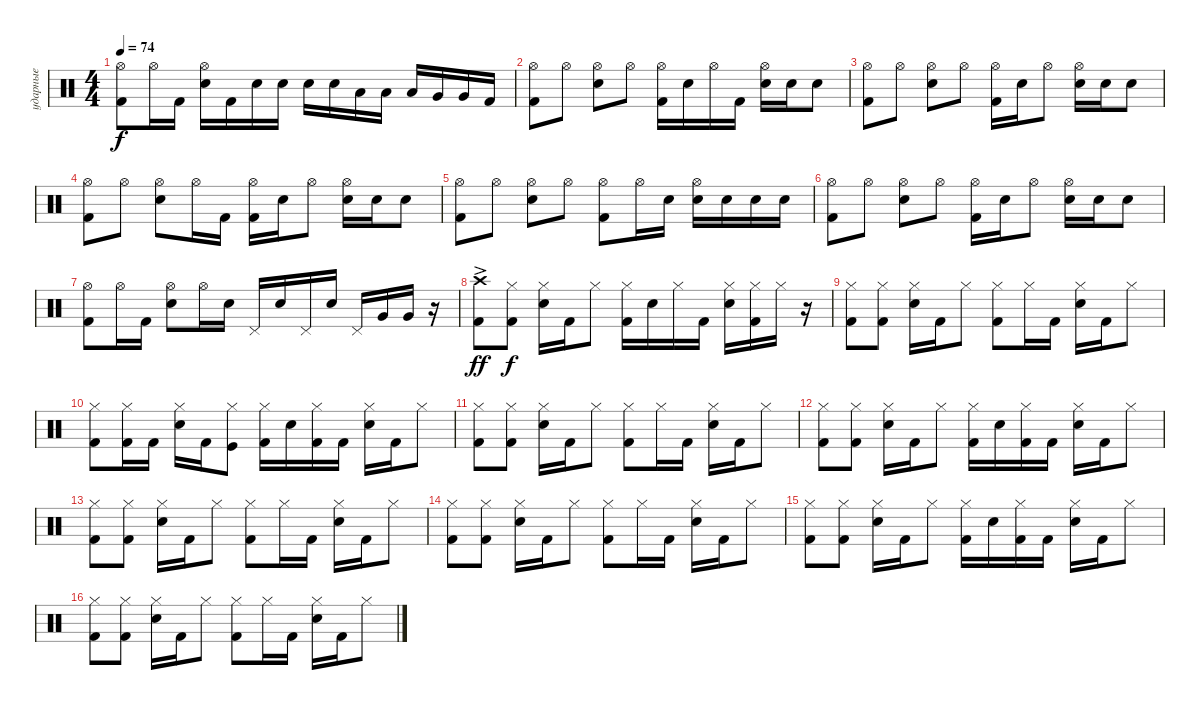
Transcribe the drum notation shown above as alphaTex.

\track ("ударные" "ударные") {instrument percussion}
\staff {score}
\articulation defaults
\ts (4 4)
\tempo 74
\clef neutral
\ks aminor
("Kick (hit) 2" "Hi-Hat (open)").8{dy f} "Hi-Hat (open)".16 "Kick (hit) 2".16 ("Snare (hit) 2" "Hi-Hat (open)").16 "Kick (hit) 2".16 "Snare (hit) 2".16 "Snare (hit) 2".16 "Snare (hit) 2".16 "Snare (hit) 2".16 "Low Tom (hit)".16 "Low Tom (hit)".16 "Low Tom (hit)".16 "Very Low Tom (hit)".16 "Very Low Tom (hit)".16 "Kick (hit) 2".16 |
("Kick (hit) 2" "Hi-Hat (open)").8 "Hi-Hat (open)".8 ("Snare (hit) 2" "Hi-Hat (open)").8 "Hi-Hat (open)".8 ("Kick (hit) 2" "Hi-Hat (open)").16 "Snare (hit) 2".16 "Hi-Hat (open)".16 "Kick (hit) 2".16 ("Snare (hit) 2" "Hi-Hat (open)").16 "Snare (hit) 2".16 "Snare (hit) 2".8 |
("Kick (hit) 2" "Hi-Hat (open)").8 "Hi-Hat (open)".8 ("Snare (hit) 2" "Hi-Hat (open)").8 "Hi-Hat (open)".8 ("Kick (hit) 2" "Hi-Hat (open)").16 "Snare (hit) 2".16 "Hi-Hat (open)".8 ("Snare (hit) 2" "Hi-Hat (open)").16 "Snare (hit) 2".16 "Snare (hit) 2".8 |
("Kick (hit) 2" "Hi-Hat (open)").8 "Hi-Hat (open)".8 ("Snare (hit) 2" "Hi-Hat (open)").8 "Hi-Hat (open)".16 "Kick (hit) 2".16 ("Kick (hit) 2" "Hi-Hat (open)").16 "Snare (hit) 2".16 "Hi-Hat (open)".8 ("Snare (hit) 2" "Hi-Hat (open)").16 "Snare (hit) 2".16 "Snare (hit) 2".8 |
("Kick (hit) 2" "Hi-Hat (open)").8 "Hi-Hat (open)".8 ("Snare (hit) 2" "Hi-Hat (open)").8 "Hi-Hat (open)".8 ("Kick (hit) 2" "Hi-Hat (open)").8 "Hi-Hat (open)".16 "Snare (hit) 2".16 ("Snare (hit) 2" "Hi-Hat (open)").16 "Snare (hit) 2".16 "Snare (hit) 2".16 "Snare (hit) 2".16 |
("Kick (hit) 2" "Hi-Hat (open)").8 "Hi-Hat (open)".8 ("Snare (hit) 2" "Hi-Hat (open)").8 "Hi-Hat (open)".8 ("Kick (hit) 2" "Hi-Hat (open)").16 "Snare (hit) 2".16 "Hi-Hat (open)".8 ("Snare (hit) 2" "Hi-Hat (open)").16 "Snare (hit) 2".16 "Snare (hit) 2".8 |
("Kick (hit) 2" "Hi-Hat (open)").8 "Hi-Hat (open)".16 "Kick (hit) 2".16 ("Snare (hit) 2" "Hi-Hat (open)").8 "Hi-Hat (open)".16 "Snare (hit) 2".16 "Pedal Hi-Hat (hit)".16 "Snare (hit) 2".16 "Pedal Hi-Hat (hit)".16 "Snare (hit) 2".16 "Pedal Hi-Hat (hit)".16 "Very Low Tom (hit)".16 "Very Low Tom (hit)".16 r.16 |
("Kick (hit) 2" "Crash high (hit)"{ac}).8{dy ff} ("Kick (hit) 2" "Hi-Hat (closed)").8{dy f} ("Snare (hit) 2" "Hi-Hat (closed)").16 "Kick (hit) 2".16 "Hi-Hat (closed)".8 ("Kick (hit) 2" "Hi-Hat (closed)").16 "Snare (hit) 2".16 "Hi-Hat (closed)".16 "Kick (hit) 2".16 ("Snare (hit) 2" "Hi-Hat (closed)").16 ("Kick (hit) 2" "Hi-Hat (closed)").16 "Hi-Hat (closed)".16 r.16 |
("Kick (hit) 2" "Hi-Hat (closed)").8 ("Kick (hit) 2" "Hi-Hat (closed)").8 ("Snare (hit) 2" "Hi-Hat (closed)").16 "Kick (hit) 2".16 "Hi-Hat (closed)".8 ("Kick (hit) 2" "Hi-Hat (closed)").8 "Hi-Hat (closed)".16 "Kick (hit) 2".16 ("Snare (hit) 2" "Hi-Hat (closed)").16 "Kick (hit) 2".16 "Hi-Hat (closed)".8 |
("Kick (hit) 2" "Hi-Hat (closed)").8 ("Hi-Hat (closed)" "Kick (hit) 2").16 "Kick (hit) 2".16 ("Snare (hit) 2" "Hi-Hat (closed)").16 "Kick (hit) 2".16 ("Hi-Hat (closed)" "Kick (hit)").8 ("Kick (hit) 2" "Hi-Hat (closed)").16 "Snare (hit) 2".16 ("Kick (hit) 2" "Hi-Hat (closed)").16 "Kick (hit) 2".16 ("Snare (hit) 2" "Hi-Hat (closed)").16 "Kick (hit) 2".16 "Hi-Hat (closed)".8 |
("Kick (hit) 2" "Hi-Hat (closed)").8 ("Kick (hit) 2" "Hi-Hat (closed)").8 ("Snare (hit) 2" "Hi-Hat (closed)").16 "Kick (hit) 2".16 "Hi-Hat (closed)".8 ("Kick (hit) 2" "Hi-Hat (closed)").8 "Hi-Hat (closed)".16 "Kick (hit) 2".16 ("Snare (hit) 2" "Hi-Hat (closed)").16 "Kick (hit) 2".16 "Hi-Hat (closed)".8 |
("Kick (hit) 2" "Hi-Hat (closed)").8 ("Hi-Hat (closed)" "Kick (hit) 2").8 ("Snare (hit) 2" "Hi-Hat (closed)").16 "Kick (hit) 2".16 "Hi-Hat (closed)".8 ("Kick (hit) 2" "Hi-Hat (closed)").16 "Snare (hit) 2".16 ("Kick (hit) 2" "Hi-Hat (closed)").16 "Kick (hit) 2".16 ("Snare (hit) 2" "Hi-Hat (closed)").16 "Kick (hit) 2".16 "Hi-Hat (closed)".8 |
("Kick (hit) 2" "Hi-Hat (closed)").8 ("Kick (hit) 2" "Hi-Hat (closed)").8 ("Snare (hit) 2" "Hi-Hat (closed)").16 "Kick (hit) 2".16 "Hi-Hat (closed)".8 ("Kick (hit) 2" "Hi-Hat (closed)").8 "Hi-Hat (closed)".16 "Kick (hit) 2".16 ("Snare (hit) 2" "Hi-Hat (closed)").16 "Kick (hit) 2".16 "Hi-Hat (closed)".8 |
("Kick (hit) 2" "Hi-Hat (closed)").8 ("Kick (hit) 2" "Hi-Hat (closed)").8 ("Snare (hit) 2" "Hi-Hat (closed)").16 "Kick (hit) 2".16 "Hi-Hat (closed)".8 ("Kick (hit) 2" "Hi-Hat (closed)").8 "Hi-Hat (closed)".16 "Kick (hit) 2".16 ("Snare (hit) 2" "Hi-Hat (closed)").16 "Kick (hit) 2".16 "Hi-Hat (closed)".8 |
("Kick (hit) 2" "Hi-Hat (closed)").8 ("Hi-Hat (closed)" "Kick (hit) 2").8 ("Snare (hit) 2" "Hi-Hat (closed)").16 "Kick (hit) 2".16 "Hi-Hat (closed)".8 ("Kick (hit) 2" "Hi-Hat (closed)").16 "Snare (hit) 2".16 ("Kick (hit) 2" "Hi-Hat (closed)").16 "Kick (hit) 2".16 ("Snare (hit) 2" "Hi-Hat (closed)").16 "Kick (hit) 2".16 "Hi-Hat (closed)".8 |
("Kick (hit) 2" "Hi-Hat (closed)").8 ("Kick (hit) 2" "Hi-Hat (closed)").8 ("Snare (hit) 2" "Hi-Hat (closed)").16 "Kick (hit) 2".16 "Hi-Hat (closed)".8 ("Kick (hit) 2" "Hi-Hat (closed)").8 "Hi-Hat (closed)".16 "Kick (hit) 2".16 ("Snare (hit) 2" "Hi-Hat (closed)").16 "Kick (hit) 2".16 "Hi-Hat (closed)".8
